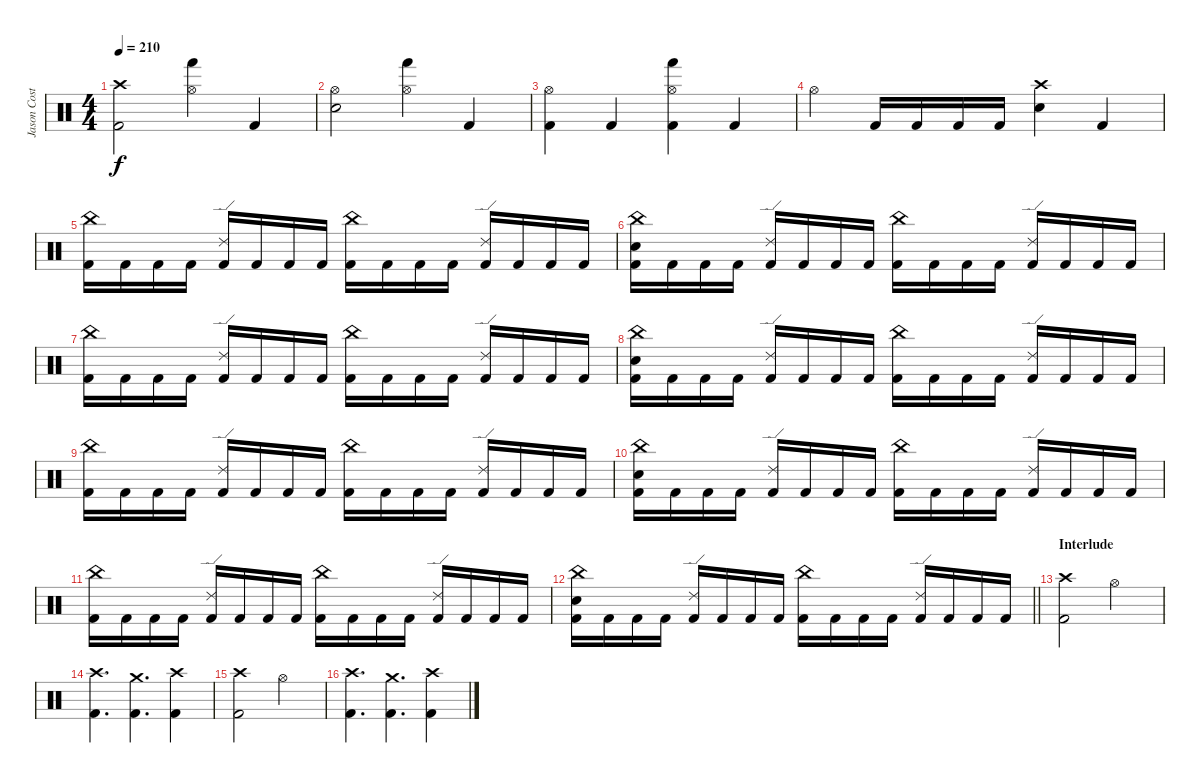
\track ("Jason Costa" "Jason Cost") {instrument percussion}
\staff {score}
\articulation defaults
\ts (4 4)
\tempo 210
\clef neutral
\ks c
("Crash high (hit)" "Kick (hit) 2").2{dy f} ("Hi-Hat (open)" "Hand (hit)").4 "Kick (hit) 2".4 |
("Hi-Hat (open)" "Electric Snare (hit)").2 ("Hi-Hat (open)" "Hand (hit)").4 "Kick (hit) 2".4 |
("Hi-Hat (open)" "Kick (hit) 2").4 "Kick (hit) 2".4 ("Hi-Hat (open)" "Hand (hit)" "Kick (hit) 2").4 "Kick (hit) 2".4 |
"Hi-Hat (open)".4 "Kick (hit) 2".16 "Kick (hit) 2".16 "Kick (hit) 2".16 "Kick (hit) 2".16 ("Crash high (hit)" "Electric Snare (hit)").4 "Kick (hit) 2".4 |
("China (hit)" "Kick (hit) 2").16 "Kick (hit) 2".16 "Kick (hit) 2".16 "Kick (hit) 2".16 ("Ride (edge) 2" "Kick (hit) 2").16 "Kick (hit) 2".16 "Kick (hit) 2".16 "Kick (hit) 2".16 ("China (hit)" "Kick (hit) 2").16 "Kick (hit) 2".16 "Kick (hit) 2".16 "Kick (hit) 2".16 ("Ride (edge) 2" "Kick (hit) 2").16 "Kick (hit) 2".16 "Kick (hit) 2".16 "Kick (hit) 2".16 |
("China (hit)" "Electric Snare (hit)" "Kick (hit) 2").16 "Kick (hit) 2".16 "Kick (hit) 2".16 "Kick (hit) 2".16 ("Ride (edge) 2" "Kick (hit) 2").16 "Kick (hit) 2".16 "Kick (hit) 2".16 "Kick (hit) 2".16 ("China (hit)" "Kick (hit) 2").16 "Kick (hit) 2".16 "Kick (hit) 2".16 "Kick (hit) 2".16 ("Ride (edge) 2" "Kick (hit) 2").16 "Kick (hit) 2".16 "Kick (hit) 2".16 "Kick (hit) 2".16 |
("China (hit)" "Kick (hit) 2").16 "Kick (hit) 2".16 "Kick (hit) 2".16 "Kick (hit) 2".16 ("Ride (edge) 2" "Kick (hit) 2").16 "Kick (hit) 2".16 "Kick (hit) 2".16 "Kick (hit) 2".16 ("China (hit)" "Kick (hit) 2").16 "Kick (hit) 2".16 "Kick (hit) 2".16 "Kick (hit) 2".16 ("Ride (edge) 2" "Kick (hit) 2").16 "Kick (hit) 2".16 "Kick (hit) 2".16 "Kick (hit) 2".16 |
("China (hit)" "Electric Snare (hit)" "Kick (hit) 2").16 "Kick (hit) 2".16 "Kick (hit) 2".16 "Kick (hit) 2".16 ("Ride (edge) 2" "Kick (hit) 2").16 "Kick (hit) 2".16 "Kick (hit) 2".16 "Kick (hit) 2".16 ("China (hit)" "Kick (hit) 2").16 "Kick (hit) 2".16 "Kick (hit) 2".16 "Kick (hit) 2".16 ("Ride (edge) 2" "Kick (hit) 2").16 "Kick (hit) 2".16 "Kick (hit) 2".16 "Kick (hit) 2".16 |
("China (hit)" "Kick (hit) 2").16 "Kick (hit) 2".16 "Kick (hit) 2".16 "Kick (hit) 2".16 ("Ride (edge) 2" "Kick (hit) 2").16 "Kick (hit) 2".16 "Kick (hit) 2".16 "Kick (hit) 2".16 ("China (hit)" "Kick (hit) 2").16 "Kick (hit) 2".16 "Kick (hit) 2".16 "Kick (hit) 2".16 ("Ride (edge) 2" "Kick (hit) 2").16 "Kick (hit) 2".16 "Kick (hit) 2".16 "Kick (hit) 2".16 |
("China (hit)" "Electric Snare (hit)" "Kick (hit) 2").16 "Kick (hit) 2".16 "Kick (hit) 2".16 "Kick (hit) 2".16 ("Ride (edge) 2" "Kick (hit) 2").16 "Kick (hit) 2".16 "Kick (hit) 2".16 "Kick (hit) 2".16 ("China (hit)" "Kick (hit) 2").16 "Kick (hit) 2".16 "Kick (hit) 2".16 "Kick (hit) 2".16 ("Ride (edge) 2" "Kick (hit) 2").16 "Kick (hit) 2".16 "Kick (hit) 2".16 "Kick (hit) 2".16 |
("China (hit)" "Kick (hit) 2").16 "Kick (hit) 2".16 "Kick (hit) 2".16 "Kick (hit) 2".16 ("Ride (edge) 2" "Kick (hit) 2").16 "Kick (hit) 2".16 "Kick (hit) 2".16 "Kick (hit) 2".16 ("China (hit)" "Kick (hit) 2").16 "Kick (hit) 2".16 "Kick (hit) 2".16 "Kick (hit) 2".16 ("Ride (edge) 2" "Kick (hit) 2").16 "Kick (hit) 2".16 "Kick (hit) 2".16 "Kick (hit) 2".16 |
\barLineRight lightlight
("China (hit)" "Electric Snare (hit)" "Kick (hit) 2").16 "Kick (hit) 2".16 "Kick (hit) 2".16 "Kick (hit) 2".16 ("Ride (edge) 2" "Kick (hit) 2").16 "Kick (hit) 2".16 "Kick (hit) 2".16 "Kick (hit) 2".16 ("China (hit)" "Kick (hit) 2").16 "Kick (hit) 2".16 "Kick (hit) 2".16 "Kick (hit) 2".16 ("Ride (edge) 2" "Kick (hit) 2").16 "Kick (hit) 2".16 "Kick (hit) 2".16 "Kick (hit) 2".16 |
\section ("" "Interlude")
("Crash high (hit)" "Kick (hit) 2").2 "Hi-Hat (open)".2 |
("Crash high (hit)" "Kick (hit) 2").4{d} ("Crash medium (hit)" "Kick (hit) 2").4{d} ("Crash high (hit)" "Kick (hit) 2").4 |
("Crash high (hit)" "Kick (hit) 2").2 "Hi-Hat (open)".2 |
("Crash high (hit)" "Kick (hit) 2").4{d} ("Crash medium (hit)" "Kick (hit) 2").4{d} ("Crash high (hit)" "Kick (hit) 2").4
